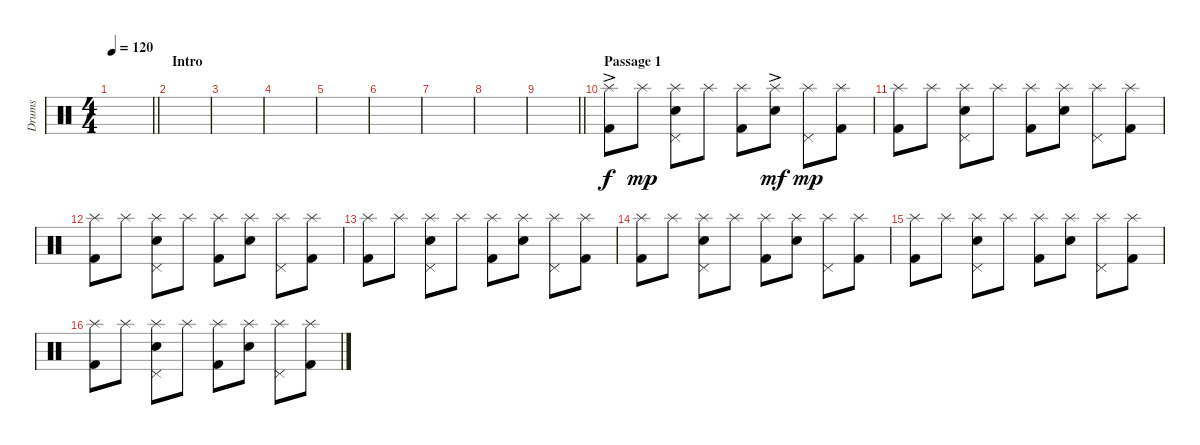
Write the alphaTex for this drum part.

\track ("Drums" "Drums") {instrument percussion}
\staff {score}
\articulation defaults
\ts (4 4)
\tempo 120
\clef neutral
\barLineRight lightlight
\ks c
|
\section ("" "Intro")
|
|
|
|
|
|
|
\barLineRight lightlight
|
\section ("" "Passage 1")
("Splash (hit)"{ac} "Kick (hit) 2").8 "Splash (hit)".8{dy mp} ("Splash (hit)" "Snare (hit) 2" "Pedal Hi-Hat (hit)").8 "Splash (hit)".8 ("Splash (hit)" "Kick (hit) 2").8 ("Splash (hit)"{ac} "Snare (hit) 2").8{dy mf} ("Splash (hit)" "Pedal Hi-Hat (hit)").8{dy mp} ("Splash (hit)" "Kick (hit) 2").8 |
("Splash (hit)" "Kick (hit) 2").8 "Splash (hit)".8 ("Splash (hit)" "Snare (hit) 2" "Pedal Hi-Hat (hit)").8 "Splash (hit)".8 ("Splash (hit)" "Kick (hit) 2").8 ("Splash (hit)" "Snare (hit) 2").8 ("Splash (hit)" "Pedal Hi-Hat (hit)").8 ("Splash (hit)" "Kick (hit) 2").8 |
("Splash (hit)" "Kick (hit) 2").8 "Splash (hit)".8 ("Splash (hit)" "Snare (hit) 2" "Pedal Hi-Hat (hit)").8 "Splash (hit)".8 ("Splash (hit)" "Kick (hit) 2").8 ("Splash (hit)" "Snare (hit) 2").8 ("Splash (hit)" "Pedal Hi-Hat (hit)").8 ("Splash (hit)" "Kick (hit) 2").8 |
("Splash (hit)" "Kick (hit) 2").8 "Splash (hit)".8 ("Splash (hit)" "Snare (hit) 2" "Pedal Hi-Hat (hit)").8 "Splash (hit)".8 ("Splash (hit)" "Kick (hit) 2").8 ("Splash (hit)" "Snare (hit) 2").8 ("Splash (hit)" "Pedal Hi-Hat (hit)").8 ("Splash (hit)" "Kick (hit) 2").8 |
("Splash (hit)" "Kick (hit) 2").8 "Splash (hit)".8 ("Splash (hit)" "Snare (hit) 2" "Pedal Hi-Hat (hit)").8 "Splash (hit)".8 ("Splash (hit)" "Kick (hit) 2").8 ("Splash (hit)" "Snare (hit) 2").8 ("Splash (hit)" "Pedal Hi-Hat (hit)").8 ("Splash (hit)" "Kick (hit) 2").8 |
("Splash (hit)" "Kick (hit) 2").8 "Splash (hit)".8 ("Splash (hit)" "Snare (hit) 2" "Pedal Hi-Hat (hit)").8 "Splash (hit)".8 ("Splash (hit)" "Kick (hit) 2").8 ("Splash (hit)" "Snare (hit) 2").8 ("Splash (hit)" "Pedal Hi-Hat (hit)").8 ("Splash (hit)" "Kick (hit) 2").8 |
("Splash (hit)" "Kick (hit) 2").8 "Splash (hit)".8 ("Splash (hit)" "Snare (hit) 2" "Pedal Hi-Hat (hit)").8 "Splash (hit)".8 ("Splash (hit)" "Kick (hit) 2").8 ("Splash (hit)" "Snare (hit) 2").8 ("Splash (hit)" "Pedal Hi-Hat (hit)").8 ("Splash (hit)" "Kick (hit) 2").8
